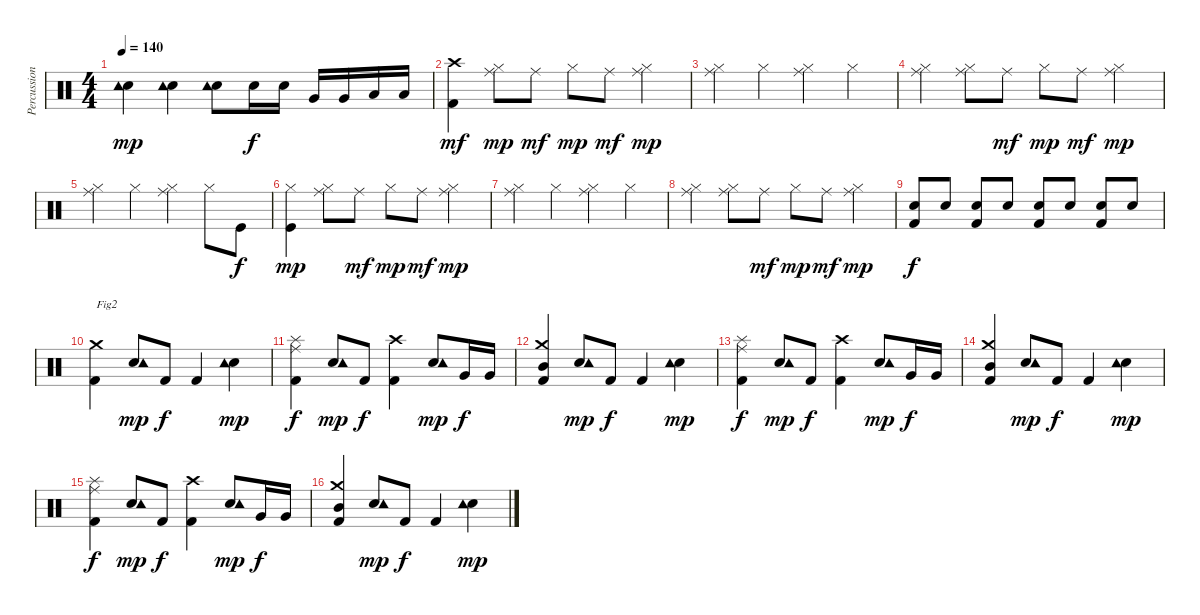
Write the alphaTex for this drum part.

\track ("Percussions" "Percussion") {instrument percussion}
\staff {score}
\articulation defaults
\ts (4 4)
\tempo 140
\clef neutral
\ks c
("Electric Snare (hit)" "Tambourine (hit)").4{dy mp} ("Electric Snare (hit)" "Tambourine (hit)").4 ("Electric Snare (hit)" "Tambourine (hit)").8 "Electric Snare (hit)".16{dy f} "Electric Snare (hit)".16 "Very Low Tom (hit)".16 "Very Low Tom (hit)".16 "Low Floor Tom (hit)".16 "Low Floor Tom (hit)".16 |
("Kick (hit) 2" "Crash high (hit)").4{dy mf} ("Ride (middle)" "Hi-Hat (closed)").8{dy mp} "Ride (middle)".8{dy mf} "Hi-Hat (closed)".8{dy mp} "Ride (middle)".8{dy mf} ("Ride (middle)" "Hi-Hat (closed)").4{dy mp} |
("Ride (middle)" "Hi-Hat (closed)").4 "Hi-Hat (closed)".4 ("Ride (middle)" "Hi-Hat (closed)").4 "Hi-Hat (closed)".4 |
("Ride (middle)" "Hi-Hat (closed)").4 ("Ride (middle)" "Hi-Hat (closed)").8 "Ride (middle)".8{dy mf} "Hi-Hat (closed)".8{dy mp} "Ride (middle)".8{dy mf} ("Ride (middle)" "Hi-Hat (closed)").4{dy mp} |
("Ride (middle)" "Hi-Hat (closed)").4 "Hi-Hat (closed)".4 ("Ride (middle)" "Hi-Hat (closed)").4 "Hi-Hat (closed)".8 "Kick (hit)".8{dy f} |
("Kick (hit)" "Hi-Hat (closed)").4{dy mp} ("Ride (middle)" "Hi-Hat (closed)").8 "Ride (middle)".8{dy mf} "Hi-Hat (closed)".8{dy mp} "Ride (middle)".8{dy mf} ("Ride (middle)" "Hi-Hat (closed)").4{dy mp} |
("Ride (middle)" "Hi-Hat (closed)").4 "Hi-Hat (closed)".4 ("Ride (middle)" "Hi-Hat (closed)").4 "Hi-Hat (closed)".4 |
("Ride (middle)" "Hi-Hat (closed)").4 ("Ride (middle)" "Hi-Hat (closed)").8 "Ride (middle)".8{dy mf} "Hi-Hat (closed)".8{dy mp} "Ride (middle)".8{dy mf} ("Ride (middle)" "Hi-Hat (closed)").4{dy mp} |
("Kick (hit) 2" "Electric Snare (hit)").8{dy f} "Electric Snare (hit)".8 ("Kick (hit) 2" "Electric Snare (hit)").8 "Electric Snare (hit)".8 ("Kick (hit) 2" "Electric Snare (hit)").8 "Electric Snare (hit)".8 ("Kick (hit) 2" "Electric Snare (hit)").8 "Electric Snare (hit)".8 |
("Kick (hit) 2" "Crash medium (hit)").4{txt "Fig2"} ("Electric Snare (hit)" "Tambourine (hit)").8{dy mp} "Kick (hit) 2".8{dy f} "Kick (hit) 2".4 ("Electric Snare (hit)" "Tambourine (hit)").4{dy mp} |
("Kick (hit) 2" "Ride (middle)" "Splash (hit)").4{dy f} ("Electric Snare (hit)" "Tambourine (hit)").8{dy mp} "Kick (hit) 2".8{dy f} ("Kick (hit) 2" "Crash high (hit)").4 ("Electric Snare (hit)" "Tambourine (hit)").8{dy mp} "Very Low Tom (hit)".16{dy f} "Very Low Tom (hit)".16 |
("Kick (hit) 2" "Mid Tom (hit)" "Crash medium (hit)").4 ("Electric Snare (hit)" "Tambourine (hit)").8{dy mp} "Kick (hit) 2".8{dy f} "Kick (hit) 2".4 ("Electric Snare (hit)" "Tambourine (hit)").4{dy mp} |
("Kick (hit) 2" "Ride (middle)" "Splash (hit)").4{dy f} ("Electric Snare (hit)" "Tambourine (hit)").8{dy mp} "Kick (hit) 2".8{dy f} ("Kick (hit) 2" "Crash high (hit)").4 ("Electric Snare (hit)" "Tambourine (hit)").8{dy mp} "Very Low Tom (hit)".16{dy f} "Very Low Tom (hit)".16 |
("Kick (hit) 2" "Mid Tom (hit)" "Crash medium (hit)").4 ("Electric Snare (hit)" "Tambourine (hit)").8{dy mp} "Kick (hit) 2".8{dy f} "Kick (hit) 2".4 ("Electric Snare (hit)" "Tambourine (hit)").4{dy mp} |
("Kick (hit) 2" "Ride (middle)" "Splash (hit)").4{dy f} ("Electric Snare (hit)" "Tambourine (hit)").8{dy mp} "Kick (hit) 2".8{dy f} ("Kick (hit) 2" "Crash high (hit)").4 ("Electric Snare (hit)" "Tambourine (hit)").8{dy mp} "Very Low Tom (hit)".16{dy f} "Very Low Tom (hit)".16 |
("Kick (hit) 2" "Mid Tom (hit)" "Crash medium (hit)").4 ("Electric Snare (hit)" "Tambourine (hit)").8{dy mp} "Kick (hit) 2".8{dy f} "Kick (hit) 2".4 ("Electric Snare (hit)" "Tambourine (hit)").4{dy mp}
